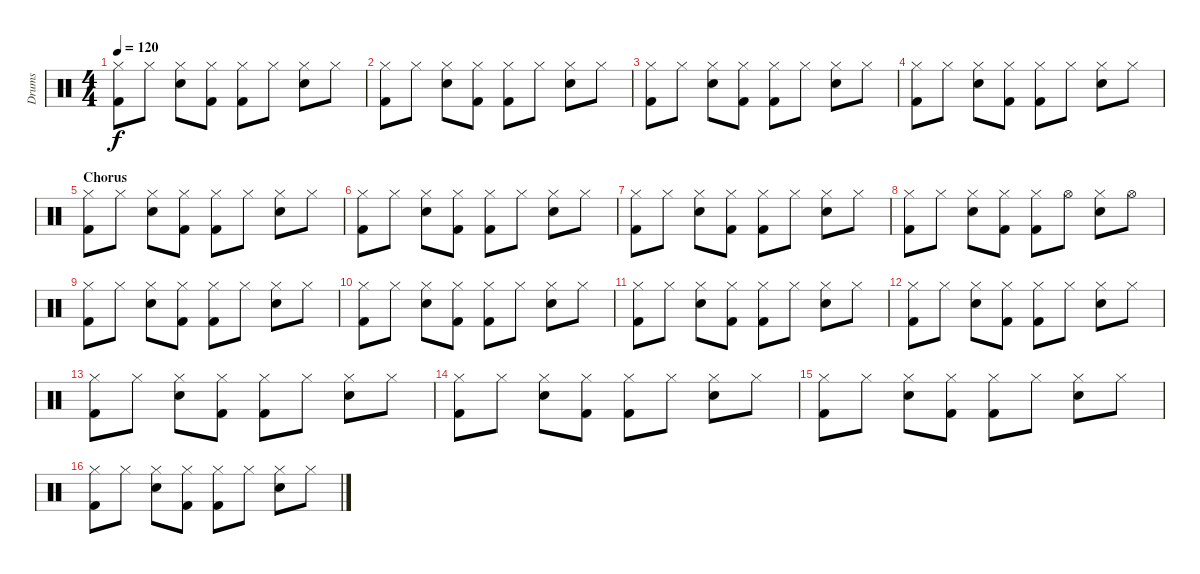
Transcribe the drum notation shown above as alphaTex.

\track ("Drums" "Drums") {instrument percussion}
\staff {score}
\articulation defaults
\ts (4 4)
\tempo 120
\clef neutral
\ks c
("Hi-Hat (closed)" "Kick (hit) 2").8{dy f} "Hi-Hat (closed)".8 ("Hi-Hat (closed)" "Snare (hit) 2").8 ("Hi-Hat (closed)" "Kick (hit) 2").8 ("Hi-Hat (closed)" "Kick (hit) 2").8 "Hi-Hat (closed)".8 ("Hi-Hat (closed)" "Snare (hit) 2").8 "Hi-Hat (closed)".8 |
("Hi-Hat (closed)" "Kick (hit) 2").8 "Hi-Hat (closed)".8 ("Hi-Hat (closed)" "Snare (hit) 2").8 ("Hi-Hat (closed)" "Kick (hit) 2").8 ("Hi-Hat (closed)" "Kick (hit) 2").8 "Hi-Hat (closed)".8 ("Hi-Hat (closed)" "Snare (hit) 2").8 "Hi-Hat (closed)".8 |
("Hi-Hat (closed)" "Kick (hit) 2").8 "Hi-Hat (closed)".8 ("Hi-Hat (closed)" "Snare (hit) 2").8 ("Hi-Hat (closed)" "Kick (hit) 2").8 ("Hi-Hat (closed)" "Kick (hit) 2").8 "Hi-Hat (closed)".8 ("Hi-Hat (closed)" "Snare (hit) 2").8 "Hi-Hat (closed)".8 |
("Hi-Hat (closed)" "Kick (hit) 2").8 "Hi-Hat (closed)".8 ("Hi-Hat (closed)" "Snare (hit) 2").8 ("Hi-Hat (closed)" "Kick (hit) 2").8 ("Hi-Hat (closed)" "Kick (hit) 2").8 "Hi-Hat (closed)".8 ("Hi-Hat (closed)" "Snare (hit) 2").8 "Hi-Hat (closed)".8 |
\section ("" "Chorus")
("Hi-Hat (closed)" "Kick (hit) 2").8 "Hi-Hat (closed)".8 ("Hi-Hat (closed)" "Snare (hit) 2").8 ("Hi-Hat (closed)" "Kick (hit) 2").8 ("Hi-Hat (closed)" "Kick (hit) 2").8 "Hi-Hat (closed)".8 ("Hi-Hat (closed)" "Snare (hit) 2").8 "Hi-Hat (closed)".8 |
("Hi-Hat (closed)" "Kick (hit) 2").8 "Hi-Hat (closed)".8 ("Hi-Hat (closed)" "Snare (hit) 2").8 ("Hi-Hat (closed)" "Kick (hit) 2").8 ("Hi-Hat (closed)" "Kick (hit) 2").8 "Hi-Hat (closed)".8 ("Hi-Hat (closed)" "Snare (hit) 2").8 "Hi-Hat (closed)".8 |
("Hi-Hat (closed)" "Kick (hit) 2").8 "Hi-Hat (closed)".8 ("Hi-Hat (closed)" "Snare (hit) 2").8 ("Hi-Hat (closed)" "Kick (hit) 2").8 ("Hi-Hat (closed)" "Kick (hit) 2").8 "Hi-Hat (closed)".8 ("Hi-Hat (closed)" "Snare (hit) 2").8 "Hi-Hat (closed)".8 |
("Hi-Hat (closed)" "Kick (hit) 2").8 "Hi-Hat (closed)".8 ("Hi-Hat (closed)" "Snare (hit) 2").8 ("Hi-Hat (closed)" "Kick (hit) 2").8 ("Hi-Hat (closed)" "Kick (hit) 2").8 "Hi-Hat (open)".8 ("Hi-Hat (closed)" "Snare (hit) 2").8 "Hi-Hat (open)".8 |
("Hi-Hat (closed)" "Kick (hit) 2").8 "Hi-Hat (closed)".8 ("Hi-Hat (closed)" "Snare (hit) 2").8 ("Hi-Hat (closed)" "Kick (hit) 2").8 ("Hi-Hat (closed)" "Kick (hit) 2").8 "Hi-Hat (closed)".8 ("Hi-Hat (closed)" "Snare (hit) 2").8 "Hi-Hat (closed)".8 |
("Hi-Hat (closed)" "Kick (hit) 2").8 "Hi-Hat (closed)".8 ("Hi-Hat (closed)" "Snare (hit) 2").8 ("Hi-Hat (closed)" "Kick (hit) 2").8 ("Hi-Hat (closed)" "Kick (hit) 2").8 "Hi-Hat (closed)".8 ("Hi-Hat (closed)" "Snare (hit) 2").8 "Hi-Hat (closed)".8 |
("Hi-Hat (closed)" "Kick (hit) 2").8 "Hi-Hat (closed)".8 ("Hi-Hat (closed)" "Snare (hit) 2").8 ("Hi-Hat (closed)" "Kick (hit) 2").8 ("Hi-Hat (closed)" "Kick (hit) 2").8 "Hi-Hat (closed)".8 ("Hi-Hat (closed)" "Snare (hit) 2").8 "Hi-Hat (closed)".8 |
("Hi-Hat (closed)" "Kick (hit) 2").8 "Hi-Hat (closed)".8 ("Hi-Hat (closed)" "Snare (hit) 2").8 ("Hi-Hat (closed)" "Kick (hit) 2").8 ("Hi-Hat (closed)" "Kick (hit) 2").8 "Hi-Hat (closed)".8 ("Hi-Hat (closed)" "Snare (hit) 2").8 "Hi-Hat (closed)".8 |
("Hi-Hat (closed)" "Kick (hit) 2").8 "Hi-Hat (closed)".8 ("Hi-Hat (closed)" "Snare (hit) 2").8 ("Hi-Hat (closed)" "Kick (hit) 2").8 ("Hi-Hat (closed)" "Kick (hit) 2").8 "Hi-Hat (closed)".8 ("Hi-Hat (closed)" "Snare (hit) 2").8 "Hi-Hat (closed)".8 |
("Hi-Hat (closed)" "Kick (hit) 2").8 "Hi-Hat (closed)".8 ("Hi-Hat (closed)" "Snare (hit) 2").8 ("Hi-Hat (closed)" "Kick (hit) 2").8 ("Hi-Hat (closed)" "Kick (hit) 2").8 "Hi-Hat (closed)".8 ("Hi-Hat (closed)" "Snare (hit) 2").8 "Hi-Hat (closed)".8 |
("Hi-Hat (closed)" "Kick (hit) 2").8 "Hi-Hat (closed)".8 ("Hi-Hat (closed)" "Snare (hit) 2").8 ("Hi-Hat (closed)" "Kick (hit) 2").8 ("Hi-Hat (closed)" "Kick (hit) 2").8 "Hi-Hat (closed)".8 ("Hi-Hat (closed)" "Snare (hit) 2").8 "Hi-Hat (closed)".8 |
("Hi-Hat (closed)" "Kick (hit) 2").8 "Hi-Hat (closed)".8 ("Hi-Hat (closed)" "Snare (hit) 2").8 ("Hi-Hat (closed)" "Kick (hit) 2").8 ("Hi-Hat (closed)" "Kick (hit) 2").8 "Hi-Hat (closed)".8 ("Hi-Hat (closed)" "Snare (hit) 2").8 "Hi-Hat (closed)".8
